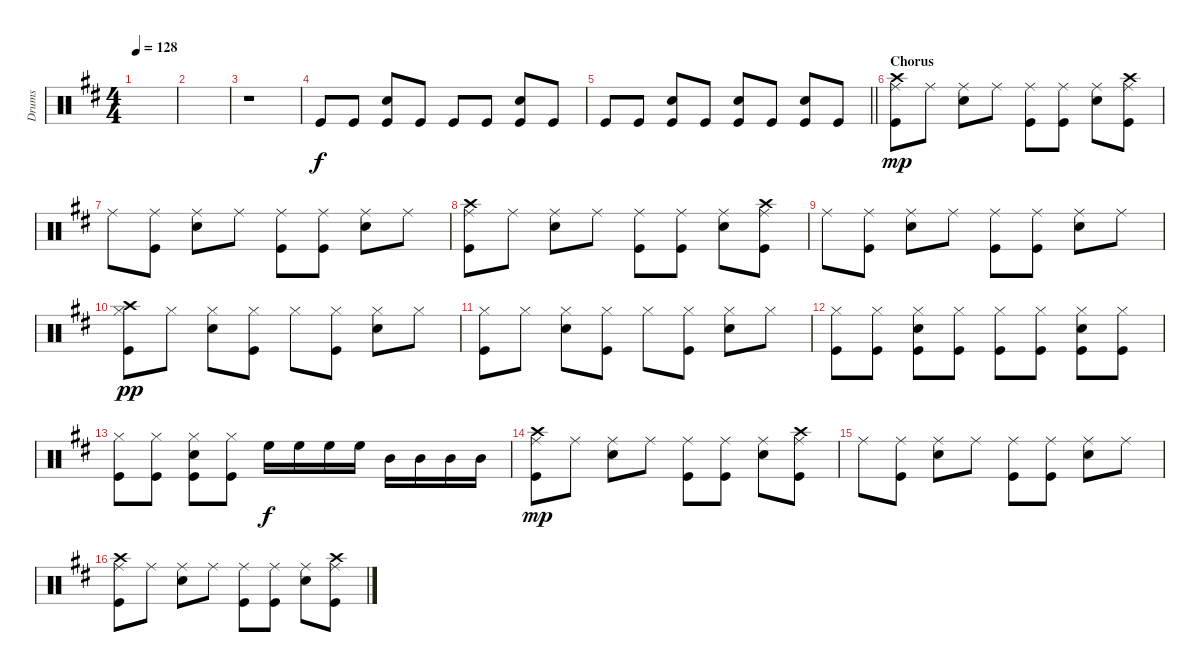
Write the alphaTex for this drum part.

\track ("Drums" "Drums") {instrument percussion}
\staff {score}
\articulation defaults
\ts (4 4)
\tempo 128
\clef neutral
\ks d
|
|
r.1{volume 3} |
"Kick (hit)".8{volume 11} "Kick (hit)".8 ("Electric Snare (hit)" "Kick (hit)").8 "Kick (hit)".8 "Kick (hit)".8 "Kick (hit)".8 ("Electric Snare (hit)" "Kick (hit)").8 "Kick (hit)".8 |
\barLineRight lightlight "Kick (hit)".8 "Kick (hit)".8
("Electric Snare (hit)" "Kick (hit)").8 "Kick (hit)".8 ("Electric Snare (hit)" "Kick (hit)").8 "Kick (hit)".8 ("Electric Snare (hit)" "Kick (hit)").8 "Kick (hit)".8 |
\section ("" "Chorus")
("Crash high (hit)" "Ride (middle)" "Kick (hit)").8{dy mp} "Ride (middle)".8 ("Ride (middle)" "Electric Snare (hit)").8 "Ride (middle)".8 ("Ride (middle)" "Kick (hit)").8 ("Ride (middle)" "Kick (hit)").8 ("Ride (middle)" "Electric Snare (hit)").8 ("Crash high (hit)" "Ride (middle)" "Kick (hit)").8 |
"Ride (middle)".8 ("Ride (middle)" "Kick (hit)").8 ("Ride (middle)" "Electric Snare (hit)").8 "Ride (middle)".8 ("Ride (middle)" "Kick (hit)").8 ("Ride (middle)" "Kick (hit)").8 ("Ride (middle)" "Electric Snare (hit)").8 "Ride (middle)".8 |
("Crash high (hit)" "Ride (middle)" "Kick (hit)").8 "Ride (middle)".8 ("Ride (middle)" "Electric Snare (hit)").8 "Ride (middle)".8 ("Ride (middle)" "Kick (hit)").8 ("Ride (middle)" "Kick (hit)").8 ("Ride (middle)" "Electric Snare (hit)").8 ("Crash high (hit)" "Ride (middle)" "Kick (hit)").8 |
"Ride (middle)".8 ("Ride (middle)" "Kick (hit)").8 ("Ride (middle)" "Electric Snare (hit)").8 "Ride (middle)".8 ("Ride (middle)" "Kick (hit)").8 ("Ride (middle)" "Kick (hit)").8 ("Ride (middle)" "Electric Snare (hit)").8 "Ride (middle)".8 |
("Crash high (hit)" "Hi-Hat (closed)" "Kick (hit)").8{dy pp} "Hi-Hat (closed)".8 ("Hi-Hat (closed)" "Electric Snare (hit)").8 ("Hi-Hat (closed)" "Kick (hit)").8 "Hi-Hat (closed)".8 ("Hi-Hat (closed)" "Kick (hit)").8 ("Hi-Hat (closed)" "Electric Snare (hit)").8 "Hi-Hat (closed)".8 |
("Hi-Hat (closed)" "Kick (hit)").8 "Hi-Hat (closed)".8 ("Hi-Hat (closed)" "Electric Snare (hit)").8 ("Hi-Hat (closed)" "Kick (hit)").8 "Hi-Hat (closed)".8 ("Hi-Hat (closed)" "Kick (hit)").8 ("Hi-Hat (closed)" "Electric Snare (hit)").8 "Hi-Hat (closed)".8 |
("Hi-Hat (closed)" "Kick (hit)").8 ("Hi-Hat (closed)" "Kick (hit)").8 ("Hi-Hat (closed)" "Electric Snare (hit)" "Kick (hit)").8 ("Hi-Hat (closed)" "Kick (hit)").8 ("Hi-Hat (closed)" "Kick (hit)").8 ("Hi-Hat (closed)" "Kick (hit)").8 ("Hi-Hat (closed)" "Electric Snare (hit)" "Kick (hit)").8 ("Hi-Hat (closed)" "Kick (hit)").8 |
("Hi-Hat (closed)" "Kick (hit)").8 ("Hi-Hat (closed)" "Kick (hit)").8 ("Hi-Hat (closed)" "Electric Snare (hit)" "Kick (hit)").8 ("Hi-Hat (closed)" "Kick (hit)").8 "High Floor Tom (hit)".16{dy f} "High Floor Tom (hit)".16 "High Floor Tom (hit)".16 "High Floor Tom (hit)".16 "Mid Tom (hit)".16 "Mid Tom (hit)".16 "Mid Tom (hit)".16 "Mid Tom (hit)".16 |
("Crash high (hit)" "Ride (middle)" "Kick (hit)").8{dy mp} "Ride (middle)".8 ("Ride (middle)" "Electric Snare (hit)").8 "Ride (middle)".8 ("Ride (middle)" "Kick (hit)").8 ("Ride (middle)" "Kick (hit)").8 ("Ride (middle)" "Electric Snare (hit)").8 ("Crash high (hit)" "Ride (middle)" "Kick (hit)").8 |
"Ride (middle)".8 ("Ride (middle)" "Kick (hit)").8 ("Ride (middle)" "Electric Snare (hit)").8 "Ride (middle)".8 ("Ride (middle)" "Kick (hit)").8 ("Ride (middle)" "Kick (hit)").8 ("Ride (middle)" "Electric Snare (hit)").8 "Ride (middle)".8 |
("Crash high (hit)" "Ride (middle)" "Kick (hit)").8 "Ride (middle)".8 ("Ride (middle)" "Electric Snare (hit)").8 "Ride (middle)".8 ("Ride (middle)" "Kick (hit)").8 ("Ride (middle)" "Kick (hit)").8 ("Ride (middle)" "Electric Snare (hit)").8 ("Crash high (hit)" "Ride (middle)" "Kick (hit)").8
